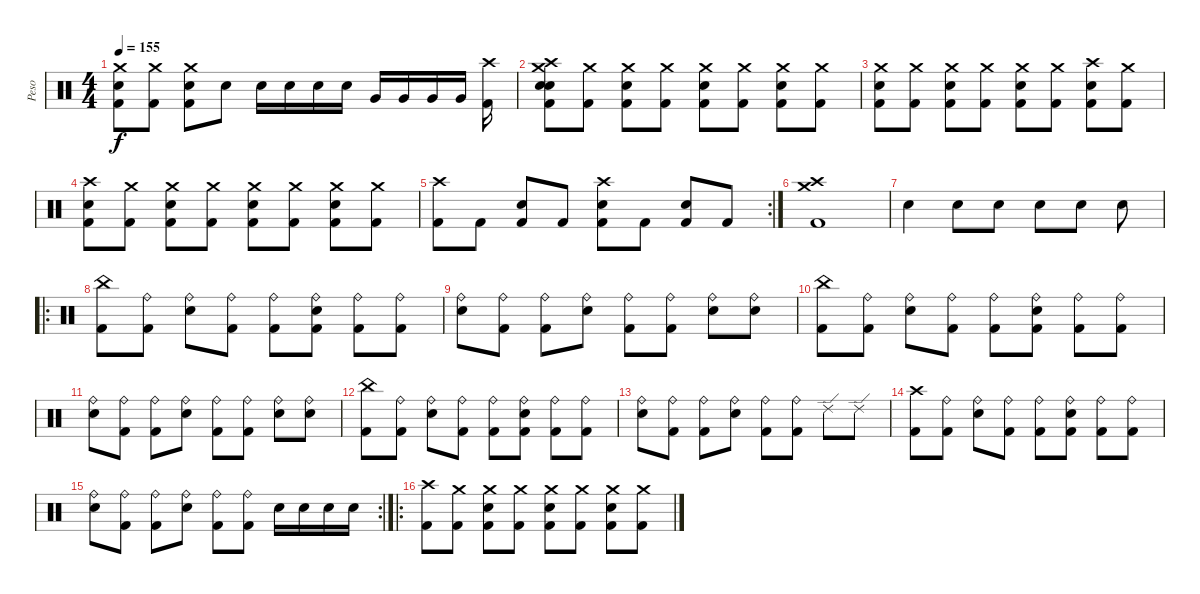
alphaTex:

\track ("Peso" "Peso") {instrument percussion}
\staff {score}
\articulation defaults
\ts (4 4)
\tempo 155
\clef neutral
\ks c
("Crash medium (hit)" "Snare (hit) 2" "Kick (hit) 2").8{dy f} ("Crash medium (hit)" "Kick (hit) 2").8 ("Crash medium (hit)" "Snare (hit) 2" "Kick (hit) 2").8 "Snare (hit) 2".8 "Snare (hit) 2".16 "Snare (hit) 2".16 "Snare (hit) 2".16 "Snare (hit) 2".16 "Very Low Tom (hit)".16 "Very Low Tom (hit)".16 "Very Low Tom (hit)".16 "Very Low Tom (hit)".16 ("Crash high (hit)" "Kick (hit) 2").16 |
("Crash high (hit)" "Crash medium (hit)" "Snare (hit) 2" "Kick (hit) 2" "Snare (hit)").8 ("Crash medium (hit)" "Kick (hit) 2").8 ("Crash medium (hit)" "Snare (hit) 2" "Kick (hit) 2").8 ("Crash medium (hit)" "Kick (hit) 2").8 ("Crash medium (hit)" "Snare (hit) 2" "Kick (hit) 2").8 ("Crash medium (hit)" "Kick (hit) 2").8 ("Crash medium (hit)" "Snare (hit) 2" "Kick (hit) 2").8 ("Crash medium (hit)" "Kick (hit) 2").8 |
("Crash medium (hit)" "Snare (hit) 2" "Kick (hit) 2").8 ("Crash medium (hit)" "Kick (hit) 2").8 ("Crash medium (hit)" "Snare (hit) 2" "Kick (hit) 2").8 ("Crash medium (hit)" "Kick (hit) 2").8 ("Crash medium (hit)" "Snare (hit) 2" "Kick (hit) 2").8 ("Crash medium (hit)" "Kick (hit) 2").8 ("Crash high (hit)" "Snare (hit) 2" "Kick (hit) 2").8 ("Crash medium (hit)" "Kick (hit) 2").8 |
("Crash high (hit)" "Snare (hit) 2" "Kick (hit) 2").8 ("Crash medium (hit)" "Kick (hit) 2").8 ("Crash medium (hit)" "Snare (hit) 2" "Kick (hit) 2").8 ("Crash medium (hit)" "Kick (hit) 2").8 ("Crash medium (hit)" "Snare (hit) 2" "Kick (hit) 2").8 ("Crash medium (hit)" "Kick (hit) 2").8 ("Crash medium (hit)" "Snare (hit) 2" "Kick (hit) 2").8 ("Crash medium (hit)" "Kick (hit) 2").8 |
\rc 2
("Crash high (hit)" "Kick (hit) 2").8 "Kick (hit) 2".8 ("Snare (hit) 2" "Kick (hit) 2").8 "Kick (hit) 2".8 ("Crash high (hit)" "Snare (hit) 2" "Kick (hit) 2").8 "Kick (hit) 2".8 ("Snare (hit) 2" "Kick (hit) 2").8 "Kick (hit) 2".8 |
("Crash high (hit)" "Crash medium (hit)" "Kick (hit) 2").1 |
"Snare (hit)"{x}.4 "Snare (hit) 2".8 "Snare (hit)"{x}.8 "Snare (hit)"{x}.8 "Snare (hit) 2".8 "Snare (hit) 2"{x}.8 |
\ro
("China (hit)" "Kick (hit) 2").8 ("Ride (bell)" "Kick (hit) 2").8 ("Ride (bell)" "Snare (hit) 2").8 ("Ride (bell)" "Kick (hit) 2").8 ("Ride (bell)" "Kick (hit) 2").8 ("Ride (bell)" "Snare (hit) 2" "Kick (hit) 2").8 ("Ride (bell)" "Kick (hit) 2").8 ("Ride (bell)" "Kick (hit) 2").8 |
("Ride (bell)" "Snare (hit) 2").8 ("Ride (bell)" "Kick (hit) 2").8 ("Ride (bell)" "Kick (hit) 2").8 ("Ride (bell)" "Snare (hit) 2").8 ("Ride (bell)" "Kick (hit) 2").8 ("Ride (bell)" "Kick (hit) 2").8 ("Ride (bell)" "Snare (hit) 2").8 ("Ride (bell)" "Snare (hit) 2").8 |
("China (hit)" "Kick (hit) 2").8 ("Ride (bell)" "Kick (hit) 2").8 ("Ride (bell)" "Snare (hit) 2").8 ("Ride (bell)" "Kick (hit) 2").8 ("Ride (bell)" "Kick (hit) 2").8 ("Ride (bell)" "Snare (hit) 2" "Kick (hit) 2").8 ("Ride (bell)" "Kick (hit) 2").8 ("Ride (bell)" "Kick (hit) 2").8 |
("Ride (bell)" "Snare (hit) 2").8 ("Ride (bell)" "Kick (hit) 2").8 ("Ride (bell)" "Kick (hit) 2").8 ("Ride (bell)" "Snare (hit) 2").8 ("Ride (bell)" "Kick (hit) 2").8 ("Ride (bell)" "Kick (hit) 2").8 ("Ride (bell)" "Snare (hit) 2").8 ("Ride (bell)" "Snare (hit) 2").8 |
("China (hit)" "Kick (hit) 2").8 ("Ride (bell)" "Kick (hit) 2").8 ("Ride (bell)" "Snare (hit) 2").8 ("Ride (bell)" "Kick (hit) 2").8 ("Ride (bell)" "Kick (hit) 2").8 ("Ride (bell)" "Snare (hit) 2" "Kick (hit) 2").8 ("Ride (bell)" "Kick (hit) 2").8 ("Ride (bell)" "Kick (hit) 2").8 |
("Ride (bell)" "Snare (hit) 2").8 ("Ride (bell)" "Kick (hit) 2").8 ("Ride (bell)" "Kick (hit) 2").8 ("Ride (bell)" "Snare (hit) 2").8 ("Ride (bell)" "Kick (hit) 2").8 ("Ride (bell)" "Kick (hit) 2").8 "Ride (edge) 2".8 "Ride (edge) 2".8 |
("Crash high (hit)" "Kick (hit) 2").8 ("Ride (bell)" "Kick (hit) 2").8 ("Ride (bell)" "Snare (hit) 2").8 ("Ride (bell)" "Kick (hit) 2").8 ("Ride (bell)" "Kick (hit) 2").8 ("Ride (bell)" "Snare (hit) 2" "Kick (hit) 2").8 ("Ride (bell)" "Kick (hit) 2").8 ("Ride (bell)" "Kick (hit) 2").8 |
\rc 2
("Ride (bell)" "Snare (hit) 2").8 ("Ride (bell)" "Kick (hit) 2").8 ("Ride (bell)" "Kick (hit) 2").8 ("Ride (bell)" "Snare (hit) 2").8 ("Ride (bell)" "Kick (hit) 2").8 ("Ride (bell)" "Kick (hit) 2").8 "Snare (hit) 2".16 "Snare (hit) 2".16 "Snare (hit) 2".16 "Snare (hit) 2".16 |
\ro
("Crash high (hit)" "Kick (hit) 2").8 ("Crash medium (hit)" "Kick (hit) 2").8 ("Crash medium (hit)" "Snare (hit) 2" "Kick (hit) 2").8 ("Crash medium (hit)" "Kick (hit) 2").8 ("Crash medium (hit)" "Snare (hit) 2" "Kick (hit) 2").8 ("Crash medium (hit)" "Kick (hit) 2").8 ("Crash medium (hit)" "Snare (hit) 2" "Kick (hit) 2").8 ("Crash medium (hit)" "Kick (hit) 2").8
